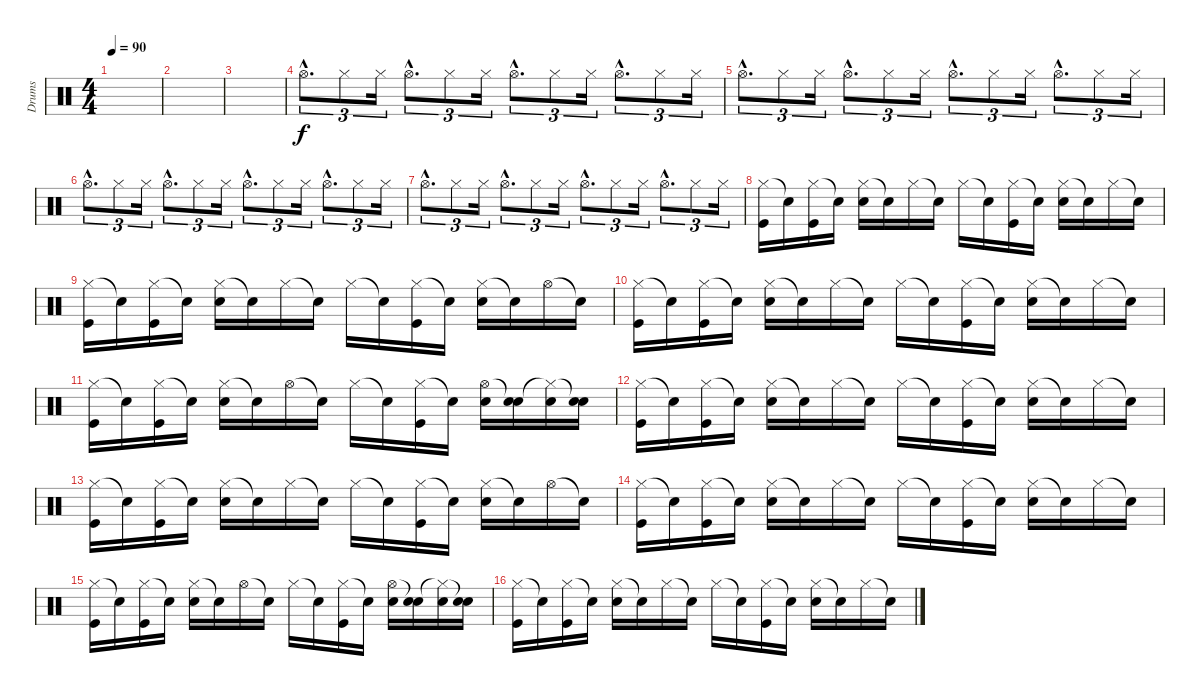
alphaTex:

\track ("Drums" "Drums") {instrument percussion}
\staff {score}
\articulation defaults
\ts (4 4)
\tempo 90
\clef neutral
\ks c
|
|
|
"Hi-Hat (open)"{hac}.8{d tu (3 2) volume 6} "Hi-Hat (closed)".8{tu (3 2)} "Hi-Hat (closed)".16{tu (3 2)} "Hi-Hat (open)"{hac}.8{d tu (3 2) volume 7} "Hi-Hat (closed)".8{tu (3 2)} "Hi-Hat (closed)".16{tu (3 2)} "Hi-Hat (open)"{hac}.8{d tu (3 2) volume 8} "Hi-Hat (closed)".8{tu (3 2)} "Hi-Hat (closed)".16{tu (3 2)} "Hi-Hat (open)"{hac}.8{d tu (3 2) volume 9} "Hi-Hat (closed)".8{tu (3 2)} "Hi-Hat (closed)".16{tu (3 2)} |
"Hi-Hat (open)"{hac}.8{d tu (3 2) volume 10} "Hi-Hat (closed)".8{tu (3 2)} "Hi-Hat (closed)".16{tu (3 2)} "Hi-Hat (open)"{hac}.8{d tu (3 2) volume 11} "Hi-Hat (closed)".8{tu (3 2)} "Hi-Hat (closed)".16{tu (3 2)} "Hi-Hat (open)"{hac}.8{d tu (3 2) volume 12} "Hi-Hat (closed)".8{tu (3 2)} "Hi-Hat (closed)".16{tu (3 2)} "Hi-Hat (open)"{hac}.8{d tu (3 2) volume 13} "Hi-Hat (closed)".8{tu (3 2)} "Hi-Hat (closed)".16{tu (3 2)} |
"Hi-Hat (open)"{hac}.8{d tu (3 2) volume 14} "Hi-Hat (closed)".8{tu (3 2)} "Hi-Hat (closed)".16{tu (3 2)} "Hi-Hat (open)"{hac}.8{d tu (3 2)} "Hi-Hat (closed)".8{tu (3 2)} "Hi-Hat (closed)".16{tu (3 2)} "Hi-Hat (open)"{hac}.8{d tu (3 2)} "Hi-Hat (closed)".8{tu (3 2)} "Hi-Hat (closed)".16{tu (3 2)} "Hi-Hat (open)"{hac}.8{d tu (3 2)} "Hi-Hat (closed)".8{tu (3 2)} "Hi-Hat (closed)".16{tu (3 2)} |
"Hi-Hat (open)"{hac}.8{d tu (3 2)} "Hi-Hat (closed)".8{tu (3 2)} "Hi-Hat (closed)".16{tu (3 2)} "Hi-Hat (open)"{hac}.8{d tu (3 2)} "Hi-Hat (closed)".8{tu (3 2)} "Hi-Hat (closed)".16{tu (3 2)} "Hi-Hat (open)"{hac}.8{d tu (3 2)} "Hi-Hat (closed)".8{tu (3 2)} "Hi-Hat (closed)".16{tu (3 2)} "Hi-Hat (open)"{hac}.8{d tu (3 2)} "Hi-Hat (closed)".8{tu (3 2)} "Hi-Hat (closed)".16{tu (3 2)} |
("Hi-Hat (closed)" "Kick (hit)").16 "Snare (hit)"{t}.16 ("Hi-Hat (closed)" "Kick (hit)").16 "Snare (hit)"{t}.16 ("Hi-Hat (closed)" "Electric Snare (hit)").16 "Snare (hit)"{t}.16 "Hi-Hat (closed)".16 "Snare (hit)"{t}.16 "Hi-Hat (closed)".16 "Snare (hit)"{t}.16 ("Hi-Hat (closed)" "Kick (hit)").16 "Snare (hit)"{t}.16 ("Hi-Hat (closed)" "Electric Snare (hit)").16 "Snare (hit)"{t}.16 "Hi-Hat (closed)".16 "Snare (hit)"{t}.16 |
("Hi-Hat (closed)" "Kick (hit)").16 "Snare (hit)"{t}.16 ("Hi-Hat (closed)" "Kick (hit)").16 "Snare (hit)"{t}.16 ("Hi-Hat (closed)" "Electric Snare (hit)").16 "Snare (hit)"{t}.16 "Hi-Hat (closed)".16 "Snare (hit)"{t}.16 "Hi-Hat (closed)".16 "Snare (hit)"{t}.16 ("Hi-Hat (closed)" "Kick (hit)").16 "Snare (hit)"{t}.16 ("Hi-Hat (closed)" "Electric Snare (hit)").16 "Snare (hit)"{t}.16 "Hi-Hat (open)".16 "Snare (hit)"{t}.16 |
("Hi-Hat (closed)" "Kick (hit)").16 "Snare (hit)"{t}.16 ("Hi-Hat (closed)" "Kick (hit)").16 "Snare (hit)"{t}.16 ("Hi-Hat (closed)" "Electric Snare (hit)").16 "Snare (hit)"{t}.16 "Hi-Hat (closed)".16 "Snare (hit)"{t}.16 "Hi-Hat (closed)".16 "Snare (hit)"{t}.16 ("Hi-Hat (closed)" "Kick (hit)").16 "Snare (hit)"{t}.16 ("Hi-Hat (closed)" "Electric Snare (hit)").16 "Snare (hit)"{t}.16 "Hi-Hat (closed)".16 "Snare (hit)"{t}.16 |
("Hi-Hat (closed)" "Kick (hit)").16 "Snare (hit)"{t}.16 ("Hi-Hat (closed)" "Kick (hit)").16 "Snare (hit)"{t}.16 ("Hi-Hat (closed)" "Electric Snare (hit)").16 "Snare (hit)"{t}.16 "Hi-Hat (open)".16 "Snare (hit)"{t}.16 "Hi-Hat (closed)".16 "Snare (hit)"{t}.16 ("Hi-Hat (closed)" "Kick (hit)").16 "Snare (hit)"{t}.16 ("Hi-Hat (open)" "Electric Snare (hit)").16 ("Snare (hit)"{t} "Electric Snare (hit)").16 ("Hi-Hat (closed)"{t} "Electric Snare (hit)").16 ("Snare (hit)"{t} "Electric Snare (hit)").16 |
("Hi-Hat (closed)" "Kick (hit)").16 "Snare (hit)"{t}.16 ("Hi-Hat (closed)" "Kick (hit)").16 "Snare (hit)"{t}.16 ("Hi-Hat (closed)" "Electric Snare (hit)").16 "Snare (hit)"{t}.16 "Hi-Hat (closed)".16 "Snare (hit)"{t}.16 "Hi-Hat (closed)".16 "Snare (hit)"{t}.16 ("Hi-Hat (closed)" "Kick (hit)").16 "Snare (hit)"{t}.16 ("Hi-Hat (closed)" "Electric Snare (hit)").16 "Snare (hit)"{t}.16 "Hi-Hat (closed)".16 "Snare (hit)"{t}.16 |
("Hi-Hat (closed)" "Kick (hit)").16 "Snare (hit)"{t}.16 ("Hi-Hat (closed)" "Kick (hit)").16 "Snare (hit)"{t}.16 ("Hi-Hat (closed)" "Electric Snare (hit)").16 "Snare (hit)"{t}.16 "Hi-Hat (closed)".16 "Snare (hit)"{t}.16 "Hi-Hat (closed)".16 "Snare (hit)"{t}.16 ("Hi-Hat (closed)" "Kick (hit)").16 "Snare (hit)"{t}.16 ("Hi-Hat (closed)" "Electric Snare (hit)").16 "Snare (hit)"{t}.16 "Hi-Hat (open)".16 "Snare (hit)"{t}.16 |
("Hi-Hat (closed)" "Kick (hit)").16 "Snare (hit)"{t}.16 ("Hi-Hat (closed)" "Kick (hit)").16 "Snare (hit)"{t}.16 ("Hi-Hat (closed)" "Electric Snare (hit)").16 "Snare (hit)"{t}.16 "Hi-Hat (closed)".16 "Snare (hit)"{t}.16 "Hi-Hat (closed)".16 "Snare (hit)"{t}.16 ("Hi-Hat (closed)" "Kick (hit)").16 "Snare (hit)"{t}.16 ("Hi-Hat (closed)" "Electric Snare (hit)").16 "Snare (hit)"{t}.16 "Hi-Hat (closed)".16 "Snare (hit)"{t}.16 |
("Hi-Hat (closed)" "Kick (hit)").16 "Snare (hit)"{t}.16 ("Hi-Hat (closed)" "Kick (hit)").16 "Snare (hit)"{t}.16 ("Hi-Hat (closed)" "Electric Snare (hit)").16 "Snare (hit)"{t}.16 "Hi-Hat (open)".16 "Snare (hit)"{t}.16 "Hi-Hat (closed)".16 "Snare (hit)"{t}.16 ("Hi-Hat (closed)" "Kick (hit)").16 "Snare (hit)"{t}.16 ("Hi-Hat (open)" "Electric Snare (hit)").16 ("Snare (hit)"{t} "Electric Snare (hit)").16 ("Hi-Hat (closed)"{t} "Electric Snare (hit)").16 ("Snare (hit)"{t} "Electric Snare (hit)").16 |
("Hi-Hat (closed)" "Kick (hit)").16 "Snare (hit)"{t}.16 ("Hi-Hat (closed)" "Kick (hit)").16 "Snare (hit)"{t}.16 ("Hi-Hat (closed)" "Electric Snare (hit)").16 "Snare (hit)"{t}.16 "Hi-Hat (closed)".16 "Snare (hit)"{t}.16 "Hi-Hat (closed)".16 "Snare (hit)"{t}.16 ("Hi-Hat (closed)" "Kick (hit)").16 "Snare (hit)"{t}.16 ("Hi-Hat (closed)" "Electric Snare (hit)").16 "Snare (hit)"{t}.16 "Hi-Hat (closed)".16 "Snare (hit)"{t}.16
